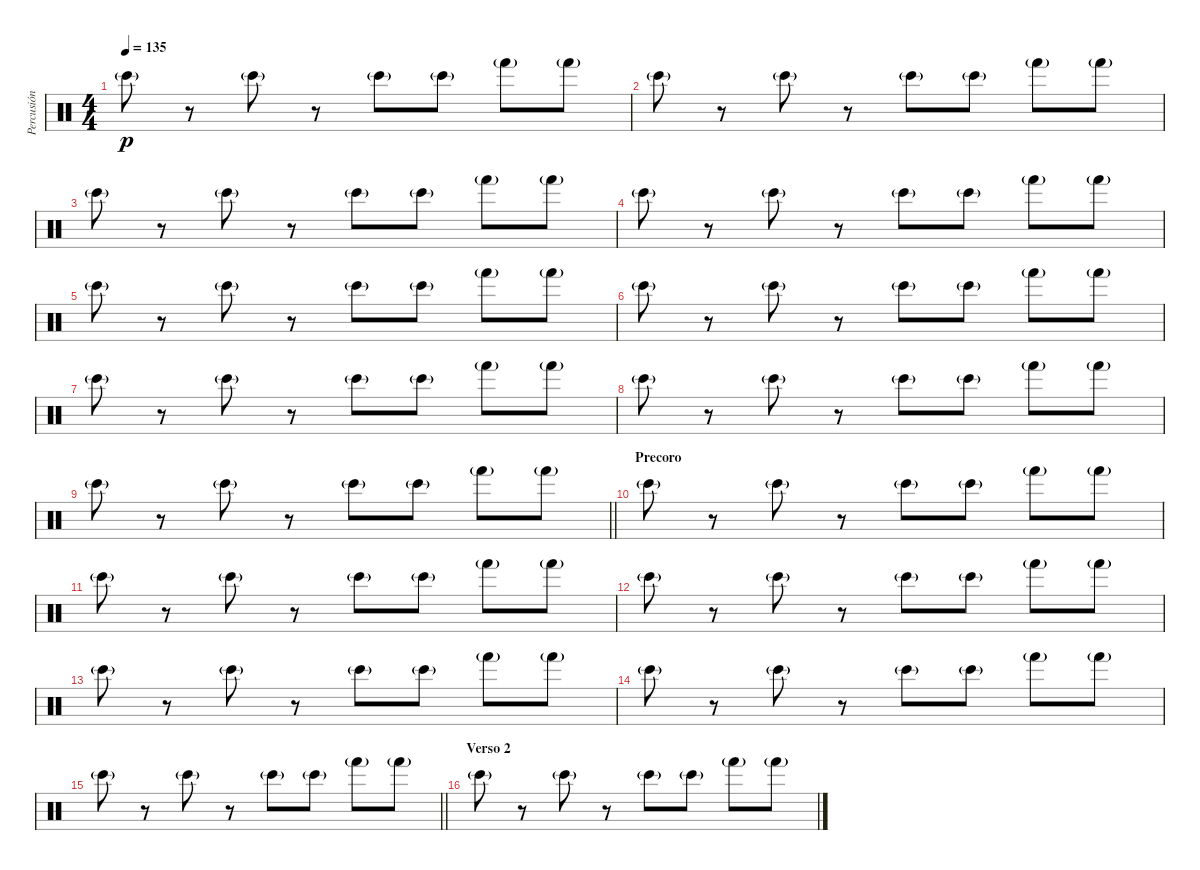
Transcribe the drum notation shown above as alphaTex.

\track ("Percusión" "Percusión") {instrument percussion}
\staff {score}
\articulation defaults
\ts (4 4)
\tempo 135
\clef neutral
\ks c "Bongo High (hit)"{g}.8{dy p}
r.8 "Bongo High (hit)"{g}.8 r.8 "Bongo High (hit)"{g}.8 "Bongo High (hit)"{g}.8 "Hand (hit)"{g}.8 "Hand (hit)"{g}.8 |
"Bongo High (hit)"{g}.8 r.8 "Bongo High (hit)"{g}.8 r.8 "Bongo High (hit)"{g}.8 "Bongo High (hit)"{g}.8 "Hand (hit)"{g}.8 "Hand (hit)"{g}.8 |
"Bongo High (hit)"{g}.8 r.8 "Bongo High (hit)"{g}.8 r.8 "Bongo High (hit)"{g}.8 "Bongo High (hit)"{g}.8 "Hand (hit)"{g}.8 "Hand (hit)"{g}.8 |
"Bongo High (hit)"{g}.8 r.8 "Bongo High (hit)"{g}.8 r.8 "Bongo High (hit)"{g}.8 "Bongo High (hit)"{g}.8 "Hand (hit)"{g}.8 "Hand (hit)"{g}.8 |
"Bongo High (hit)"{g}.8 r.8 "Bongo High (hit)"{g}.8 r.8 "Bongo High (hit)"{g}.8 "Bongo High (hit)"{g}.8 "Hand (hit)"{g}.8 "Hand (hit)"{g}.8 |
"Bongo High (hit)"{g}.8 r.8 "Bongo High (hit)"{g}.8 r.8 "Bongo High (hit)"{g}.8 "Bongo High (hit)"{g}.8 "Hand (hit)"{g}.8 "Hand (hit)"{g}.8 |
"Bongo High (hit)"{g}.8 r.8 "Bongo High (hit)"{g}.8 r.8 "Bongo High (hit)"{g}.8 "Bongo High (hit)"{g}.8 "Hand (hit)"{g}.8 "Hand (hit)"{g}.8 |
"Bongo High (hit)"{g}.8 r.8 "Bongo High (hit)"{g}.8 r.8 "Bongo High (hit)"{g}.8 "Bongo High (hit)"{g}.8 "Hand (hit)"{g}.8 "Hand (hit)"{g}.8 |
\barLineRight lightlight "Bongo High (hit)"{g}.8
r.8 "Bongo High (hit)"{g}.8 r.8 "Bongo High (hit)"{g}.8 "Bongo High (hit)"{g}.8 "Hand (hit)"{g}.8 "Hand (hit)"{g}.8 |
\section ("" "Precoro")
"Bongo High (hit)"{g}.8 r.8 "Bongo High (hit)"{g}.8 r.8 "Bongo High (hit)"{g}.8 "Bongo High (hit)"{g}.8 "Hand (hit)"{g}.8 "Hand (hit)"{g}.8 |
"Bongo High (hit)"{g}.8 r.8 "Bongo High (hit)"{g}.8 r.8 "Bongo High (hit)"{g}.8 "Bongo High (hit)"{g}.8 "Hand (hit)"{g}.8 "Hand (hit)"{g}.8 |
"Bongo High (hit)"{g}.8 r.8 "Bongo High (hit)"{g}.8 r.8 "Bongo High (hit)"{g}.8 "Bongo High (hit)"{g}.8 "Hand (hit)"{g}.8 "Hand (hit)"{g}.8 |
"Bongo High (hit)"{g}.8 r.8 "Bongo High (hit)"{g}.8 r.8 "Bongo High (hit)"{g}.8 "Bongo High (hit)"{g}.8 "Hand (hit)"{g}.8 "Hand (hit)"{g}.8 |
"Bongo High (hit)"{g}.8 r.8 "Bongo High (hit)"{g}.8 r.8 "Bongo High (hit)"{g}.8 "Bongo High (hit)"{g}.8 "Hand (hit)"{g}.8 "Hand (hit)"{g}.8 |
\barLineRight lightlight "Bongo High (hit)"{g}.8
r.8 "Bongo High (hit)"{g}.8 r.8 "Bongo High (hit)"{g}.8 "Bongo High (hit)"{g}.8 "Hand (hit)"{g}.8 "Hand (hit)"{g}.8 |
\section ("" "Verso 2")
"Bongo High (hit)"{g}.8 r.8 "Bongo High (hit)"{g}.8 r.8 "Bongo High (hit)"{g}.8 "Bongo High (hit)"{g}.8 "Hand (hit)"{g}.8 "Hand (hit)"{g}.8
